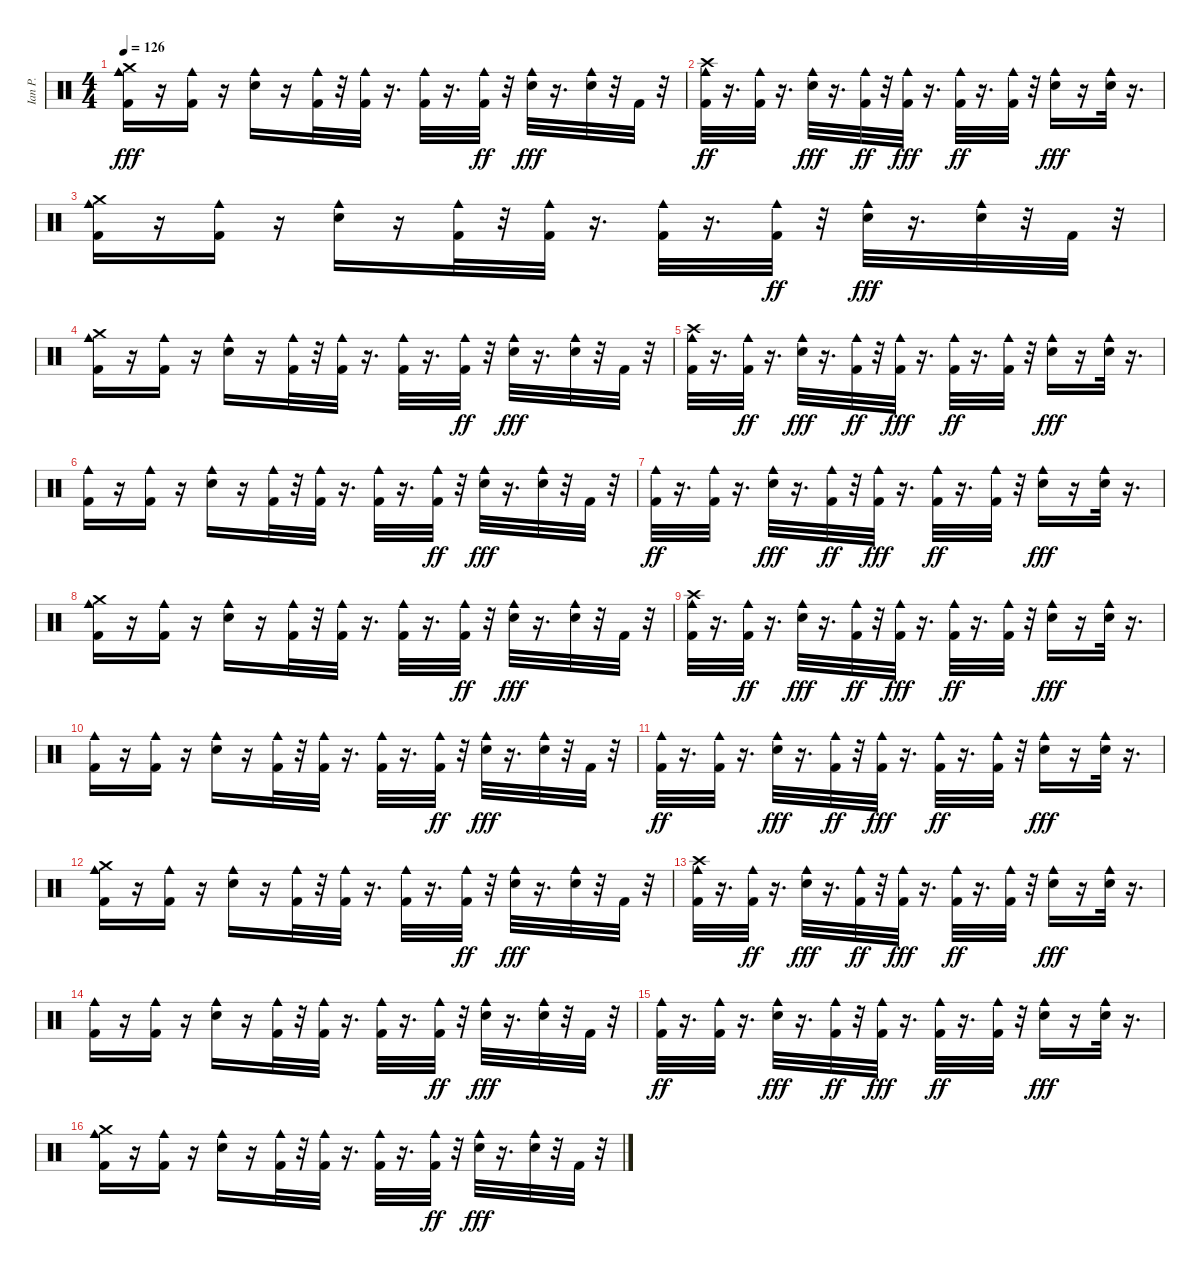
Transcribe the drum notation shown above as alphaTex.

\track ("Ian P." "Ian P.") {instrument percussion}
\staff {score}
\articulation defaults
\ts (4 4)
\tempo 126
\clef neutral
\ks c
("Cowbell medium (hit)" "Crash medium (hit)" "Kick (hit) 2").16{dy fff} r.16 ("Cowbell medium (hit)" "Kick (hit) 2").16 r.16 ("Cowbell medium (hit)" "Snare (hit) 2").16 r.16 ("Cowbell medium (hit)" "Kick (hit) 2").32 r.32 ("Cowbell medium (hit)" "Kick (hit) 2").32 r.16{d} ("Kick (hit) 2" "Cowbell medium (hit)").32 r.16{d} ("Kick (hit) 2" "Cowbell medium (hit)").32{dy ff} r.32 ("Snare (hit) 2" "Cowbell medium (hit)").32{dy fff} r.16{d} ("Snare (hit) 2" "Cowbell medium (hit)").32 r.32 "Kick (hit) 2".32 r.32 |
("Kick (hit) 2" "Crash high (hit)" "Cowbell medium (hit)").32{dy ff} r.16{d} ("Kick (hit) 2" "Cowbell medium (hit)").32 r.16{d} ("Cowbell medium (hit)" "Snare (hit) 2").32{dy fff} r.16{d} ("Cowbell medium (hit)" "Kick (hit) 2").32{dy ff} r.32 ("Cowbell medium (hit)" "Kick (hit) 2").32{dy fff} r.16{d} ("Kick (hit) 2" "Cowbell medium (hit)").32{dy ff} r.16{d} ("Cowbell medium (hit)" "Kick (hit) 2").32 r.32 ("Cowbell medium (hit)" "Snare (hit) 2").16{dy fff} r.16 ("Cowbell medium (hit)" "Snare (hit) 2").32 r.16{d} |
("Cowbell medium (hit)" "Crash medium (hit)" "Kick (hit) 2").16 r.16 ("Cowbell medium (hit)" "Kick (hit) 2").16 r.16 ("Cowbell medium (hit)" "Snare (hit) 2").16 r.16 ("Cowbell medium (hit)" "Kick (hit) 2").32 r.32 ("Cowbell medium (hit)" "Kick (hit) 2").32 r.16{d} ("Kick (hit) 2" "Cowbell medium (hit)").32 r.16{d} ("Kick (hit) 2" "Cowbell medium (hit)").32{dy ff} r.32 ("Snare (hit) 2" "Cowbell medium (hit)").32{dy fff} r.16{d} ("Snare (hit) 2" "Cowbell medium (hit)").32 r.32 "Kick (hit) 2".32 r.32 |
("Cowbell medium (hit)" "Crash medium (hit)" "Kick (hit) 2").16 r.16 ("Cowbell medium (hit)" "Kick (hit) 2").16 r.16 ("Cowbell medium (hit)" "Snare (hit) 2").16 r.16 ("Cowbell medium (hit)" "Kick (hit) 2").32 r.32 ("Cowbell medium (hit)" "Kick (hit) 2").32 r.16{d} ("Kick (hit) 2" "Cowbell medium (hit)").32 r.16{d} ("Kick (hit) 2" "Cowbell medium (hit)").32{dy ff} r.32 ("Snare (hit) 2" "Cowbell medium (hit)").32{dy fff} r.16{d} ("Snare (hit) 2" "Cowbell medium (hit)").32 r.32 "Kick (hit) 2".32 r.32 |
("Kick (hit) 2" "Cowbell medium (hit)" "Crash high (hit)").32 r.16{d} ("Kick (hit) 2" "Cowbell medium (hit)").32{dy ff} r.16{d} ("Cowbell medium (hit)" "Snare (hit) 2").32{dy fff} r.16{d} ("Cowbell medium (hit)" "Kick (hit) 2").32{dy ff} r.32 ("Cowbell medium (hit)" "Kick (hit) 2").32{dy fff} r.16{d} ("Kick (hit) 2" "Cowbell medium (hit)").32{dy ff} r.16{d} ("Cowbell medium (hit)" "Kick (hit) 2").32 r.32 ("Cowbell medium (hit)" "Snare (hit) 2").16{dy fff} r.16 ("Cowbell medium (hit)" "Snare (hit) 2").32 r.16{d} |
("Cowbell medium (hit)" "Kick (hit) 2").16 r.16 ("Cowbell medium (hit)" "Kick (hit) 2").16 r.16 ("Cowbell medium (hit)" "Snare (hit) 2").16 r.16 ("Cowbell medium (hit)" "Kick (hit) 2").32 r.32 ("Cowbell medium (hit)" "Kick (hit) 2").32 r.16{d} ("Kick (hit) 2" "Cowbell medium (hit)").32 r.16{d} ("Kick (hit) 2" "Cowbell medium (hit)").32{dy ff} r.32 ("Snare (hit) 2" "Cowbell medium (hit)").32{dy fff} r.16{d} ("Snare (hit) 2" "Cowbell medium (hit)").32 r.32 "Kick (hit) 2".32 r.32 |
("Kick (hit) 2" "Cowbell medium (hit)").32{dy ff} r.16{d} ("Kick (hit) 2" "Cowbell medium (hit)").32 r.16{d} ("Cowbell medium (hit)" "Snare (hit) 2").32{dy fff} r.16{d} ("Cowbell medium (hit)" "Kick (hit) 2").32{dy ff} r.32 ("Cowbell medium (hit)" "Kick (hit) 2").32{dy fff} r.16{d} ("Kick (hit) 2" "Cowbell medium (hit)").32{dy ff} r.16{d} ("Cowbell medium (hit)" "Kick (hit) 2").32 r.32 ("Cowbell medium (hit)" "Snare (hit) 2").16{dy fff} r.16 ("Cowbell medium (hit)" "Snare (hit) 2").32 r.16{d} |
("Cowbell medium (hit)" "Crash medium (hit)" "Kick (hit) 2").16 r.16 ("Cowbell medium (hit)" "Kick (hit) 2").16 r.16 ("Cowbell medium (hit)" "Snare (hit) 2").16 r.16 ("Cowbell medium (hit)" "Kick (hit) 2").32 r.32 ("Cowbell medium (hit)" "Kick (hit) 2").32 r.16{d} ("Kick (hit) 2" "Cowbell medium (hit)").32 r.16{d} ("Kick (hit) 2" "Cowbell medium (hit)").32{dy ff} r.32 ("Snare (hit) 2" "Cowbell medium (hit)").32{dy fff} r.16{d} ("Snare (hit) 2" "Cowbell medium (hit)").32 r.32 "Kick (hit) 2".32 r.32 |
("Kick (hit) 2" "Cowbell medium (hit)" "Crash high (hit)").32 r.16{d} ("Kick (hit) 2" "Cowbell medium (hit)").32{dy ff} r.16{d} ("Cowbell medium (hit)" "Snare (hit) 2").32{dy fff} r.16{d} ("Cowbell medium (hit)" "Kick (hit) 2").32{dy ff} r.32 ("Cowbell medium (hit)" "Kick (hit) 2").32{dy fff} r.16{d} ("Kick (hit) 2" "Cowbell medium (hit)").32{dy ff} r.16{d} ("Cowbell medium (hit)" "Kick (hit) 2").32 r.32 ("Cowbell medium (hit)" "Snare (hit) 2").16{dy fff} r.16 ("Cowbell medium (hit)" "Snare (hit) 2").32 r.16{d} |
("Cowbell medium (hit)" "Kick (hit) 2").16 r.16 ("Cowbell medium (hit)" "Kick (hit) 2").16 r.16 ("Cowbell medium (hit)" "Snare (hit) 2").16 r.16 ("Cowbell medium (hit)" "Kick (hit) 2").32 r.32 ("Cowbell medium (hit)" "Kick (hit) 2").32 r.16{d} ("Kick (hit) 2" "Cowbell medium (hit)").32 r.16{d} ("Kick (hit) 2" "Cowbell medium (hit)").32{dy ff} r.32 ("Snare (hit) 2" "Cowbell medium (hit)").32{dy fff} r.16{d} ("Snare (hit) 2" "Cowbell medium (hit)").32 r.32 "Kick (hit) 2".32 r.32 |
("Kick (hit) 2" "Cowbell medium (hit)").32{dy ff} r.16{d} ("Kick (hit) 2" "Cowbell medium (hit)").32 r.16{d} ("Cowbell medium (hit)" "Snare (hit) 2").32{dy fff} r.16{d} ("Cowbell medium (hit)" "Kick (hit) 2").32{dy ff} r.32 ("Cowbell medium (hit)" "Kick (hit) 2").32{dy fff} r.16{d} ("Kick (hit) 2" "Cowbell medium (hit)").32{dy ff} r.16{d} ("Cowbell medium (hit)" "Kick (hit) 2").32 r.32 ("Cowbell medium (hit)" "Snare (hit) 2").16{dy fff} r.16 ("Cowbell medium (hit)" "Snare (hit) 2").32 r.16{d} |
("Cowbell medium (hit)" "Crash medium (hit)" "Kick (hit) 2").16 r.16 ("Cowbell medium (hit)" "Kick (hit) 2").16 r.16 ("Cowbell medium (hit)" "Snare (hit) 2").16 r.16 ("Cowbell medium (hit)" "Kick (hit) 2").32 r.32 ("Cowbell medium (hit)" "Kick (hit) 2").32 r.16{d} ("Kick (hit) 2" "Cowbell medium (hit)").32 r.16{d} ("Kick (hit) 2" "Cowbell medium (hit)").32{dy ff} r.32 ("Snare (hit) 2" "Cowbell medium (hit)").32{dy fff} r.16{d} ("Snare (hit) 2" "Cowbell medium (hit)").32 r.32 "Kick (hit) 2".32 r.32 |
("Kick (hit) 2" "Cowbell medium (hit)" "Crash high (hit)").32 r.16{d} ("Kick (hit) 2" "Cowbell medium (hit)").32{dy ff} r.16{d} ("Cowbell medium (hit)" "Snare (hit) 2").32{dy fff} r.16{d} ("Cowbell medium (hit)" "Kick (hit) 2").32{dy ff} r.32 ("Cowbell medium (hit)" "Kick (hit) 2").32{dy fff} r.16{d} ("Kick (hit) 2" "Cowbell medium (hit)").32{dy ff} r.16{d} ("Cowbell medium (hit)" "Kick (hit) 2").32 r.32 ("Cowbell medium (hit)" "Snare (hit) 2").16{dy fff} r.16 ("Cowbell medium (hit)" "Snare (hit) 2").32 r.16{d} |
("Cowbell medium (hit)" "Kick (hit) 2").16 r.16 ("Cowbell medium (hit)" "Kick (hit) 2").16 r.16 ("Cowbell medium (hit)" "Snare (hit) 2").16 r.16 ("Cowbell medium (hit)" "Kick (hit) 2").32 r.32 ("Cowbell medium (hit)" "Kick (hit) 2").32 r.16{d} ("Kick (hit) 2" "Cowbell medium (hit)").32 r.16{d} ("Kick (hit) 2" "Cowbell medium (hit)").32{dy ff} r.32 ("Snare (hit) 2" "Cowbell medium (hit)").32{dy fff} r.16{d} ("Snare (hit) 2" "Cowbell medium (hit)").32 r.32 "Kick (hit) 2".32 r.32 |
("Kick (hit) 2" "Cowbell medium (hit)").32{dy ff} r.16{d} ("Kick (hit) 2" "Cowbell medium (hit)").32 r.16{d} ("Cowbell medium (hit)" "Snare (hit) 2").32{dy fff} r.16{d} ("Cowbell medium (hit)" "Kick (hit) 2").32{dy ff} r.32 ("Cowbell medium (hit)" "Kick (hit) 2").32{dy fff} r.16{d} ("Kick (hit) 2" "Cowbell medium (hit)").32{dy ff} r.16{d} ("Cowbell medium (hit)" "Kick (hit) 2").32 r.32 ("Cowbell medium (hit)" "Snare (hit) 2").16{dy fff} r.16 ("Cowbell medium (hit)" "Snare (hit) 2").32 r.16{d} |
("Cowbell medium (hit)" "Crash medium (hit)" "Kick (hit) 2").16 r.16 ("Cowbell medium (hit)" "Kick (hit) 2").16 r.16 ("Cowbell medium (hit)" "Snare (hit) 2").16 r.16 ("Cowbell medium (hit)" "Kick (hit) 2").32 r.32 ("Cowbell medium (hit)" "Kick (hit) 2").32 r.16{d} ("Kick (hit) 2" "Cowbell medium (hit)").32 r.16{d} ("Kick (hit) 2" "Cowbell medium (hit)").32{dy ff} r.32 ("Snare (hit) 2" "Cowbell medium (hit)").32{dy fff} r.16{d} ("Snare (hit) 2" "Cowbell medium (hit)").32 r.32 "Kick (hit) 2".32 r.32
